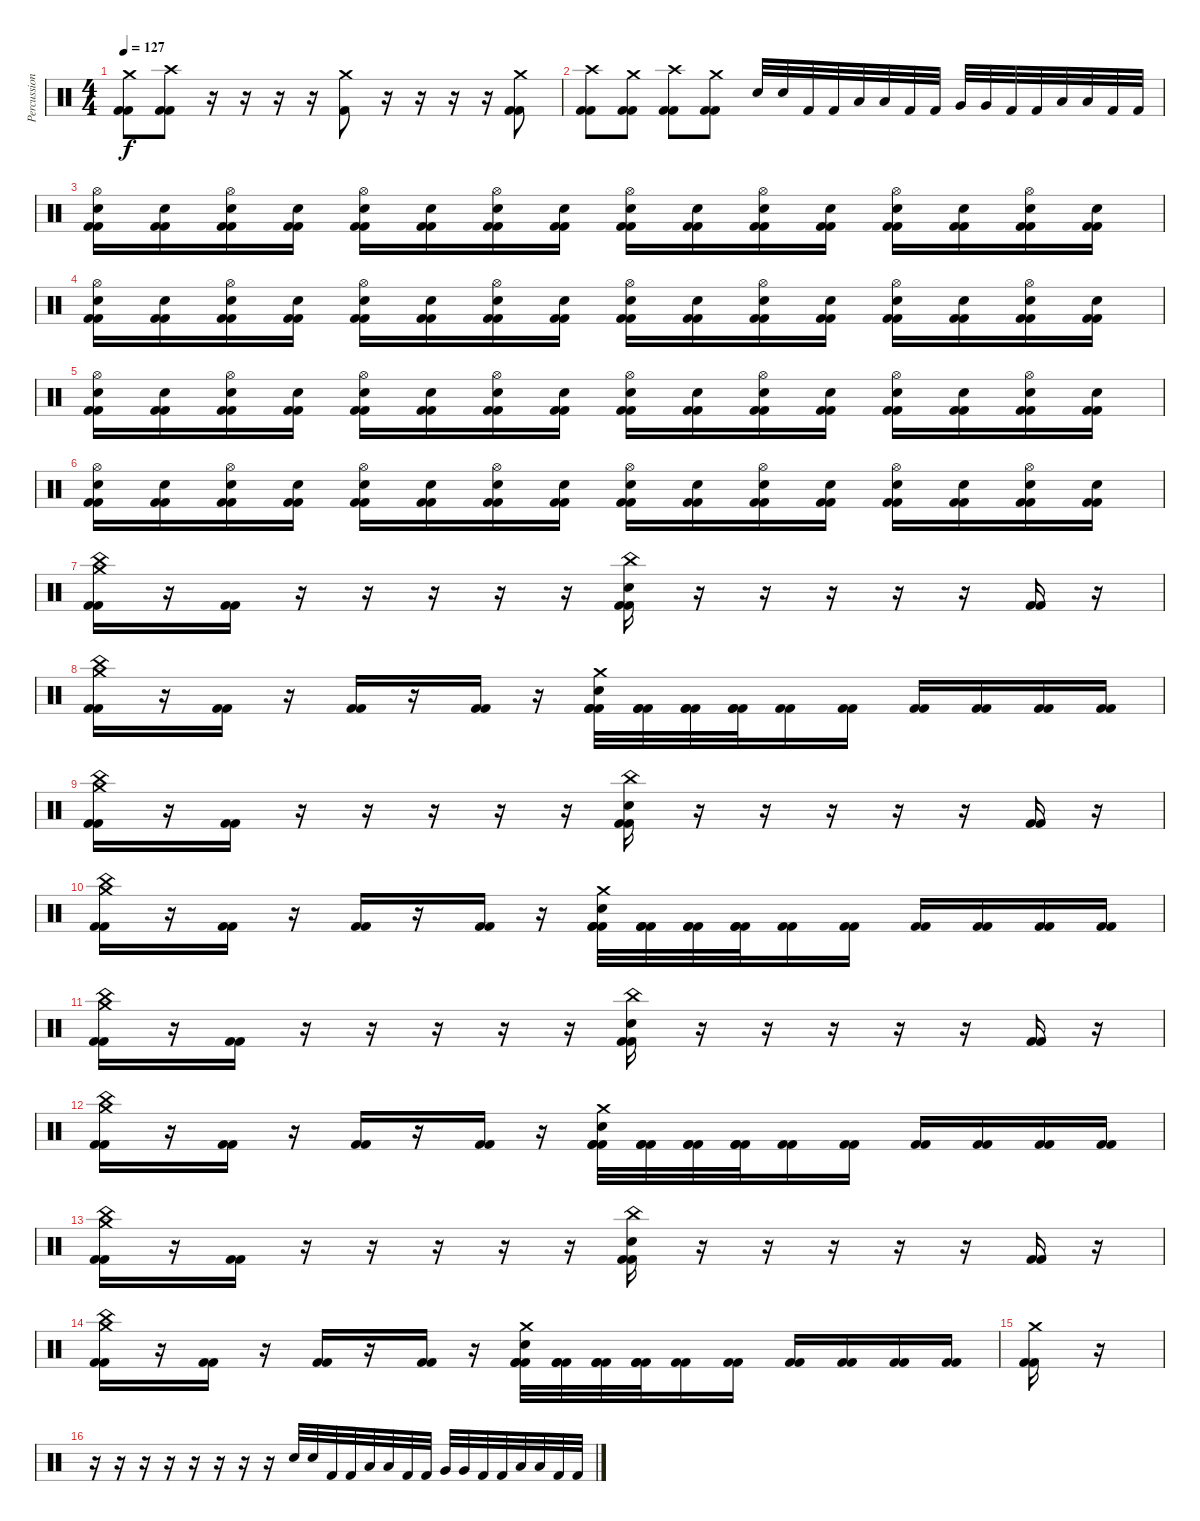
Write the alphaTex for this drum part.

\track ("Percussion" "Percussion") {instrument percussion}
\staff {score}
\articulation defaults
\ts (4 4)
\tempo 127
\clef neutral
\ks c
("Crash medium (hit)" "Kick (hit) 2" "Kick (hit) 2").8{dy f} ("Crash high (hit)" "Kick (hit) 2" "Kick (hit) 2").8 r.16{volume 0} r.16 r.16 r.16 ("Crash medium (hit)" "Kick (hit) 2").8{volume 13} r.16{volume 0} r.16 r.16 r.16 ("Crash medium (hit)" "Kick (hit) 2" "Kick (hit) 2").8{volume 13} |
("Crash high (hit)" "Kick (hit) 2" "Kick (hit) 2").8 ("Crash medium (hit)" "Kick (hit) 2" "Kick (hit) 2").8 ("Crash high (hit)" "Kick (hit) 2" "Kick (hit) 2").8 ("Crash medium (hit)" "Kick (hit) 2" "Kick (hit) 2").8 "Electric Snare (hit)".32 "Electric Snare (hit)".32 "Kick (hit) 2".32 "Kick (hit) 2".32 "Low Tom (hit)".32 "Low Tom (hit)".32 "Kick (hit) 2".32 "Kick (hit) 2".32 "Very Low Tom (hit)".32 "Very Low Tom (hit)".32 "Kick (hit) 2".32 "Kick (hit) 2".32 "Low Floor Tom (hit)".32 "Low Floor Tom (hit)".32 "Kick (hit) 2".32 "Kick (hit) 2".32 |
("Hi-Hat (open)" "Electric Snare (hit)" "Kick (hit) 2" "Kick (hit) 2").16 ("Electric Snare (hit)" "Kick (hit) 2" "Kick (hit) 2").16 ("Hi-Hat (open)" "Electric Snare (hit)" "Kick (hit) 2" "Kick (hit) 2").16 ("Electric Snare (hit)" "Kick (hit) 2" "Kick (hit) 2").16 ("Hi-Hat (open)" "Electric Snare (hit)" "Kick (hit) 2" "Kick (hit) 2").16 ("Electric Snare (hit)" "Kick (hit) 2" "Kick (hit) 2").16 ("Hi-Hat (open)" "Electric Snare (hit)" "Kick (hit) 2" "Kick (hit) 2").16 ("Electric Snare (hit)" "Kick (hit) 2" "Kick (hit) 2").16 ("Hi-Hat (open)" "Electric Snare (hit)" "Kick (hit) 2" "Kick (hit) 2").16 ("Electric Snare (hit)" "Kick (hit) 2" "Kick (hit) 2").16 ("Hi-Hat (open)" "Electric Snare (hit)" "Kick (hit) 2" "Kick (hit) 2").16 ("Electric Snare (hit)" "Kick (hit) 2" "Kick (hit) 2").16 ("Hi-Hat (open)" "Electric Snare (hit)" "Kick (hit) 2" "Kick (hit) 2").16 ("Electric Snare (hit)" "Kick (hit) 2" "Kick (hit) 2").16 ("Hi-Hat (open)" "Electric Snare (hit)" "Kick (hit) 2" "Kick (hit) 2").16 ("Electric Snare (hit)" "Kick (hit) 2" "Kick (hit) 2").16 |
("Hi-Hat (open)" "Electric Snare (hit)" "Kick (hit) 2" "Kick (hit) 2").16 ("Electric Snare (hit)" "Kick (hit) 2" "Kick (hit) 2").16 ("Hi-Hat (open)" "Electric Snare (hit)" "Kick (hit) 2" "Kick (hit) 2").16 ("Electric Snare (hit)" "Kick (hit) 2" "Kick (hit) 2").16 ("Hi-Hat (open)" "Electric Snare (hit)" "Kick (hit) 2" "Kick (hit) 2").16 ("Electric Snare (hit)" "Kick (hit) 2" "Kick (hit) 2").16 ("Hi-Hat (open)" "Electric Snare (hit)" "Kick (hit) 2" "Kick (hit) 2").16 ("Electric Snare (hit)" "Kick (hit) 2" "Kick (hit) 2").16 ("Hi-Hat (open)" "Electric Snare (hit)" "Kick (hit) 2" "Kick (hit) 2").16 ("Electric Snare (hit)" "Kick (hit) 2" "Kick (hit) 2").16 ("Hi-Hat (open)" "Electric Snare (hit)" "Kick (hit) 2" "Kick (hit) 2").16 ("Electric Snare (hit)" "Kick (hit) 2" "Kick (hit) 2").16 ("Hi-Hat (open)" "Electric Snare (hit)" "Kick (hit) 2" "Kick (hit) 2").16 ("Electric Snare (hit)" "Kick (hit) 2" "Kick (hit) 2").16 ("Hi-Hat (open)" "Electric Snare (hit)" "Kick (hit) 2" "Kick (hit) 2").16 ("Electric Snare (hit)" "Kick (hit) 2" "Kick (hit) 2").16 |
("Hi-Hat (open)" "Electric Snare (hit)" "Kick (hit) 2" "Kick (hit) 2").16 ("Electric Snare (hit)" "Kick (hit) 2" "Kick (hit) 2").16 ("Hi-Hat (open)" "Electric Snare (hit)" "Kick (hit) 2" "Kick (hit) 2").16 ("Electric Snare (hit)" "Kick (hit) 2" "Kick (hit) 2").16 ("Hi-Hat (open)" "Electric Snare (hit)" "Kick (hit) 2" "Kick (hit) 2").16 ("Electric Snare (hit)" "Kick (hit) 2" "Kick (hit) 2").16 ("Hi-Hat (open)" "Electric Snare (hit)" "Kick (hit) 2" "Kick (hit) 2").16 ("Electric Snare (hit)" "Kick (hit) 2" "Kick (hit) 2").16 ("Hi-Hat (open)" "Electric Snare (hit)" "Kick (hit) 2" "Kick (hit) 2").16 ("Electric Snare (hit)" "Kick (hit) 2" "Kick (hit) 2").16 ("Hi-Hat (open)" "Electric Snare (hit)" "Kick (hit) 2" "Kick (hit) 2").16 ("Electric Snare (hit)" "Kick (hit) 2" "Kick (hit) 2").16 ("Hi-Hat (open)" "Electric Snare (hit)" "Kick (hit) 2" "Kick (hit) 2").16 ("Electric Snare (hit)" "Kick (hit) 2" "Kick (hit) 2").16 ("Hi-Hat (open)" "Electric Snare (hit)" "Kick (hit) 2" "Kick (hit) 2").16 ("Electric Snare (hit)" "Kick (hit) 2" "Kick (hit) 2").16 |
("Hi-Hat (open)" "Electric Snare (hit)" "Kick (hit) 2" "Kick (hit) 2").16 ("Electric Snare (hit)" "Kick (hit) 2" "Kick (hit) 2").16 ("Hi-Hat (open)" "Electric Snare (hit)" "Kick (hit) 2" "Kick (hit) 2").16 ("Electric Snare (hit)" "Kick (hit) 2" "Kick (hit) 2").16 ("Hi-Hat (open)" "Electric Snare (hit)" "Kick (hit) 2" "Kick (hit) 2").16 ("Electric Snare (hit)" "Kick (hit) 2" "Kick (hit) 2").16 ("Hi-Hat (open)" "Electric Snare (hit)" "Kick (hit) 2" "Kick (hit) 2").16 ("Electric Snare (hit)" "Kick (hit) 2" "Kick (hit) 2").16 ("Hi-Hat (open)" "Electric Snare (hit)" "Kick (hit) 2" "Kick (hit) 2").16 ("Electric Snare (hit)" "Kick (hit) 2" "Kick (hit) 2").16 ("Hi-Hat (open)" "Electric Snare (hit)" "Kick (hit) 2" "Kick (hit) 2").16 ("Electric Snare (hit)" "Kick (hit) 2" "Kick (hit) 2").16 ("Hi-Hat (open)" "Electric Snare (hit)" "Kick (hit) 2" "Kick (hit) 2").16 ("Electric Snare (hit)" "Kick (hit) 2" "Kick (hit) 2").16 ("Hi-Hat (open)" "Electric Snare (hit)" "Kick (hit) 2" "Kick (hit) 2").16 ("Electric Snare (hit)" "Kick (hit) 2" "Kick (hit) 2").16 |
("China (hit)" "Crash medium (hit)" "Kick (hit) 2" "Kick (hit) 2").16 r.16 ("Kick (hit) 2" "Kick (hit) 2").16 r.16 r.16 r.16 r.16 r.16 ("China (hit)" "Electric Snare (hit)" "Kick (hit) 2" "Kick (hit) 2").16 r.16 r.16 r.16 r.16 r.16 ("Kick (hit) 2" "Kick (hit) 2").16 r.16 |
("China (hit)" "Crash medium (hit)" "Kick (hit) 2" "Kick (hit) 2").16 r.16 ("Kick (hit) 2" "Kick (hit) 2").16 r.16 ("Kick (hit) 2" "Kick (hit) 2").16 r.16 ("Kick (hit) 2" "Kick (hit) 2").16 r.16 ("Crash medium (hit)" "Electric Snare (hit)" "Kick (hit) 2" "Kick (hit) 2" "Kick (hit) 2").32 ("Kick (hit) 2" "Kick (hit) 2" "Kick (hit) 2").32 ("Kick (hit) 2" "Kick (hit) 2" "Kick (hit) 2").32 ("Kick (hit) 2" "Kick (hit) 2" "Kick (hit) 2").32 ("Kick (hit) 2" "Kick (hit) 2").16 ("Kick (hit) 2" "Kick (hit) 2").16 ("Kick (hit) 2" "Kick (hit) 2").16 ("Kick (hit) 2" "Kick (hit) 2").16 ("Kick (hit) 2" "Kick (hit) 2").16 ("Kick (hit) 2" "Kick (hit) 2").16 |
("China (hit)" "Crash medium (hit)" "Kick (hit) 2" "Kick (hit) 2").16 r.16 ("Kick (hit) 2" "Kick (hit) 2").16 r.16 r.16 r.16 r.16 r.16 ("China (hit)" "Electric Snare (hit)" "Kick (hit) 2" "Kick (hit) 2").16 r.16 r.16 r.16 r.16 r.16 ("Kick (hit) 2" "Kick (hit) 2").16 r.16 |
("China (hit)" "Crash medium (hit)" "Kick (hit) 2" "Kick (hit) 2").16 r.16 ("Kick (hit) 2" "Kick (hit) 2").16 r.16 ("Kick (hit) 2" "Kick (hit) 2").16 r.16 ("Kick (hit) 2" "Kick (hit) 2").16 r.16 ("Crash medium (hit)" "Electric Snare (hit)" "Kick (hit) 2" "Kick (hit) 2" "Kick (hit) 2").32 ("Kick (hit) 2" "Kick (hit) 2" "Kick (hit) 2").32 ("Kick (hit) 2" "Kick (hit) 2" "Kick (hit) 2").32 ("Kick (hit) 2" "Kick (hit) 2" "Kick (hit) 2").32 ("Kick (hit) 2" "Kick (hit) 2").16 ("Kick (hit) 2" "Kick (hit) 2").16 ("Kick (hit) 2" "Kick (hit) 2").16 ("Kick (hit) 2" "Kick (hit) 2").16 ("Kick (hit) 2" "Kick (hit) 2").16 ("Kick (hit) 2" "Kick (hit) 2").16 |
("China (hit)" "Crash medium (hit)" "Kick (hit) 2" "Kick (hit) 2").16 r.16 ("Kick (hit) 2" "Kick (hit) 2").16 r.16 r.16 r.16 r.16 r.16 ("China (hit)" "Electric Snare (hit)" "Kick (hit) 2" "Kick (hit) 2").16 r.16 r.16 r.16 r.16 r.16 ("Kick (hit) 2" "Kick (hit) 2").16 r.16 |
("China (hit)" "Crash medium (hit)" "Kick (hit) 2" "Kick (hit) 2").16 r.16 ("Kick (hit) 2" "Kick (hit) 2").16 r.16 ("Kick (hit) 2" "Kick (hit) 2").16 r.16 ("Kick (hit) 2" "Kick (hit) 2").16 r.16 ("Crash medium (hit)" "Electric Snare (hit)" "Kick (hit) 2" "Kick (hit) 2" "Kick (hit) 2").32 ("Kick (hit) 2" "Kick (hit) 2" "Kick (hit) 2").32 ("Kick (hit) 2" "Kick (hit) 2" "Kick (hit) 2").32 ("Kick (hit) 2" "Kick (hit) 2" "Kick (hit) 2").32 ("Kick (hit) 2" "Kick (hit) 2").16 ("Kick (hit) 2" "Kick (hit) 2").16 ("Kick (hit) 2" "Kick (hit) 2").16 ("Kick (hit) 2" "Kick (hit) 2").16 ("Kick (hit) 2" "Kick (hit) 2").16 ("Kick (hit) 2" "Kick (hit) 2").16 |
("China (hit)" "Crash medium (hit)" "Kick (hit) 2" "Kick (hit) 2").16 r.16 ("Kick (hit) 2" "Kick (hit) 2").16 r.16 r.16 r.16 r.16 r.16 ("China (hit)" "Electric Snare (hit)" "Kick (hit) 2" "Kick (hit) 2").16 r.16 r.16 r.16 r.16 r.16 ("Kick (hit) 2" "Kick (hit) 2").16 r.16 |
("China (hit)" "Crash medium (hit)" "Kick (hit) 2" "Kick (hit) 2").16 r.16 ("Kick (hit) 2" "Kick (hit) 2").16 r.16 ("Kick (hit) 2" "Kick (hit) 2").16 r.16 ("Kick (hit) 2" "Kick (hit) 2").16 r.16 ("Crash medium (hit)" "Electric Snare (hit)" "Kick (hit) 2" "Kick (hit) 2" "Kick (hit) 2").32 ("Kick (hit) 2" "Kick (hit) 2" "Kick (hit) 2").32 ("Kick (hit) 2" "Kick (hit) 2" "Kick (hit) 2").32 ("Kick (hit) 2" "Kick (hit) 2" "Kick (hit) 2").32 ("Kick (hit) 2" "Kick (hit) 2").16 ("Kick (hit) 2" "Kick (hit) 2").16 ("Kick (hit) 2" "Kick (hit) 2").16 ("Kick (hit) 2" "Kick (hit) 2").16 ("Kick (hit) 2" "Kick (hit) 2").16 ("Kick (hit) 2" "Kick (hit) 2").16 |
("Crash medium (hit)" "Kick (hit) 2" "Kick (hit) 2").16 r.16{volume 0} |
r.16 r.16 r.16 r.16 r.16 r.16 r.16 r.16 "Electric Snare (hit)".32{volume 13} "Electric Snare (hit)".32 "Kick (hit) 2".32 "Kick (hit) 2".32 "Low Tom (hit)".32 "Low Tom (hit)".32 "Kick (hit) 2".32 "Kick (hit) 2".32 "Very Low Tom (hit)".32 "Very Low Tom (hit)".32 "Kick (hit) 2".32 "Kick (hit) 2".32 "Low Floor Tom (hit)".32 "Low Floor Tom (hit)".32 "Kick (hit) 2".32 "Kick (hit) 2".32
